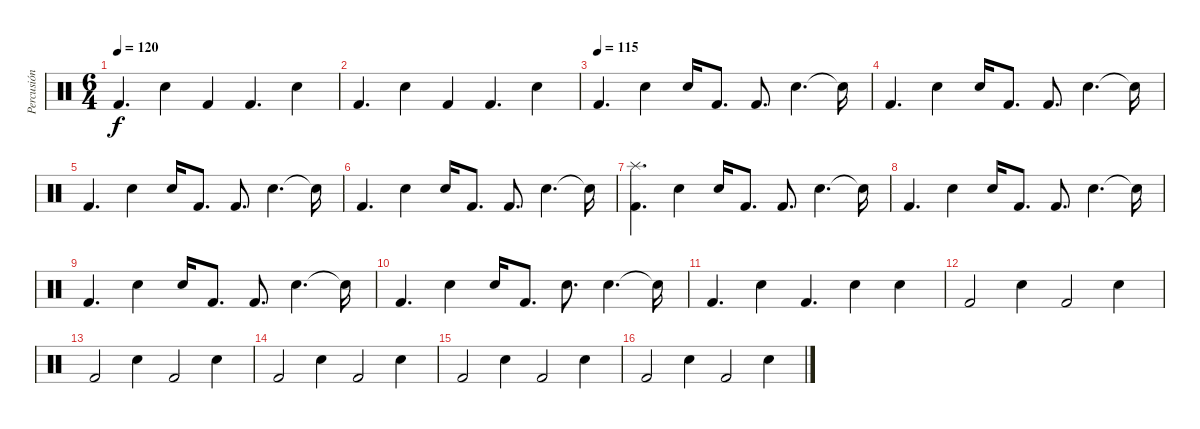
\track ("Percusión" "Percusión") {instrument percussion}
\staff {score}
\articulation defaults
\ts (6 4)
\tempo 120
\clef neutral
\ks c "Kick (hit) 2".4{d dy f} "Electric Snare (hit)".4 "Kick (hit) 2".4 "Kick (hit) 2".4{d} "Electric Snare (hit)".4
|
"Kick (hit) 2".4{d} "Electric Snare (hit)".4 "Kick (hit) 2".4 "Kick (hit) 2".4{d} "Electric Snare (hit)".4 |
\tempo (115)
"Kick (hit) 2".4{d} "Snare (hit) 2".4 "Snare (hit) 2".16 "Kick (hit) 2".8{d} "Kick (hit) 2".8{d} "Snare (hit) 2".4{d} "Snare (hit)"{t}.16 |
"Kick (hit) 2".4{d} "Snare (hit) 2".4 "Snare (hit) 2".16 "Kick (hit) 2".8{d} "Kick (hit) 2".8{d} "Snare (hit) 2".4{d} "Snare (hit)"{t}.16 |
"Kick (hit) 2".4{d} "Snare (hit) 2".4 "Snare (hit) 2".16 "Kick (hit) 2".8{d} "Kick (hit) 2".8{d} "Snare (hit) 2".4{d} "Snare (hit)"{t}.16 |
"Kick (hit) 2".4{d} "Snare (hit) 2".4 "Snare (hit) 2".16 "Kick (hit) 2".8{d} "Kick (hit) 2".8{d} "Snare (hit) 2".4{d} "Snare (hit)"{t}.16 |
("Kick (hit) 2" "Splash (hit)").4{d} "Snare (hit) 2".4 "Snare (hit) 2".16 "Kick (hit) 2".8{d} "Kick (hit) 2".8{d} "Snare (hit) 2".4{d} "Snare (hit)"{t}.16 |
"Kick (hit) 2".4{d} "Snare (hit) 2".4 "Snare (hit) 2".16 "Kick (hit) 2".8{d} "Kick (hit) 2".8{d} "Snare (hit) 2".4{d} "Snare (hit)"{t}.16 |
"Kick (hit) 2".4{d} "Snare (hit) 2".4 "Snare (hit) 2".16 "Kick (hit) 2".8{d} "Kick (hit) 2".8{d} "Snare (hit) 2".4{d} "Snare (hit)"{t}.16 |
"Kick (hit) 2".4{d} "Snare (hit) 2".4 "Snare (hit) 2".16 "Kick (hit) 2".8{d} "Snare (hit) 2".8{d} "Snare (hit) 2".4{d} "Snare (hit) 2"{t}.16 |
"Kick (hit) 2".4{d} "Snare (hit) 2".4 "Kick (hit) 2".4{d} "Snare (hit) 2".4 "Snare (hit) 2".4 |
"Kick (hit) 2".2 "Snare (hit) 2".4 "Kick (hit) 2".2 "Snare (hit) 2".4 |
"Kick (hit) 2".2 "Snare (hit) 2".4 "Kick (hit) 2".2 "Snare (hit) 2".4 |
"Kick (hit) 2".2 "Snare (hit) 2".4 "Kick (hit) 2".2 "Snare (hit) 2".4 |
"Kick (hit) 2".2 "Snare (hit) 2".4 "Kick (hit) 2".2 "Snare (hit) 2".4 |
"Kick (hit) 2".2 "Snare (hit) 2".4 "Kick (hit) 2".2 "Snare (hit) 2".4
